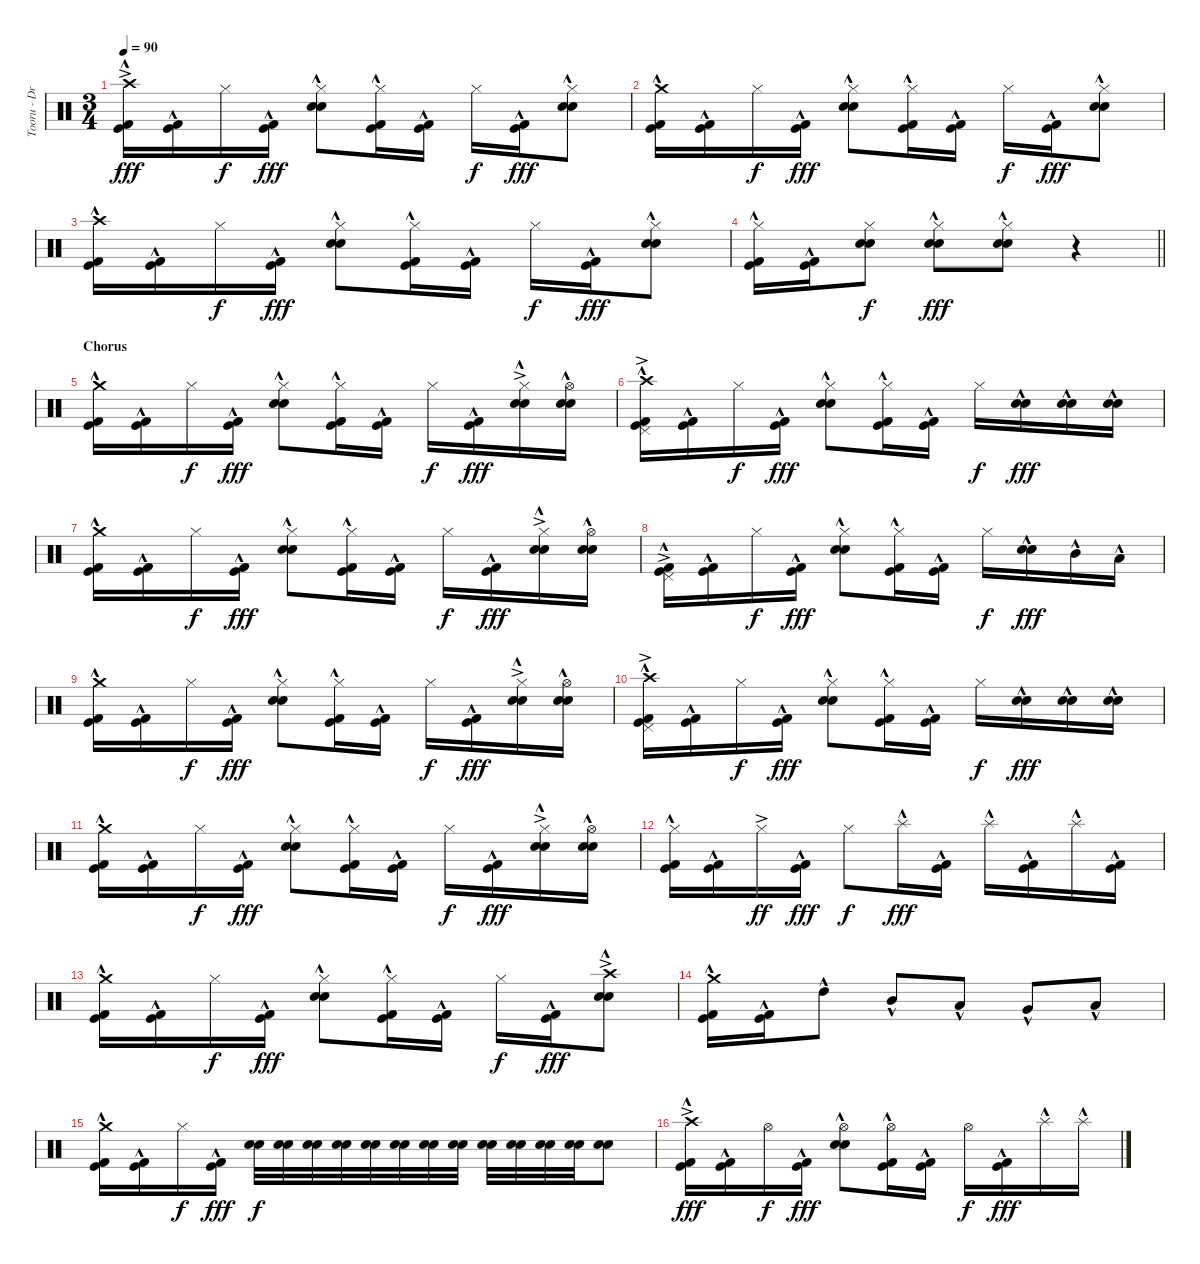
\track ("Tooru - Drums" "Tooru - Dr") {instrument percussion}
\staff {score}
\articulation defaults
\ts (3 4)
\tempo 90
\clef neutral
\ks c
("Crash high (hit)"{ac} "Kick (hit)"{hac} "Kick (hit) 2"{hac}).16{dy fff} ("Kick (hit)"{hac} "Kick (hit) 2"{hac}).16 "Hi-Hat (closed)".16{dy f} ("Kick (hit)"{hac} "Kick (hit) 2"{hac}).16{dy fff} ("Hi-Hat (closed)" "Electric Snare (hit)"{hac} "Snare (hit) 2"{hac}).8 ("Hi-Hat (closed)" "Kick (hit)"{hac} "Kick (hit) 2"{hac}).16 ("Kick (hit)"{hac} "Kick (hit) 2"{hac}).16 "Hi-Hat (closed)".16{dy f} ("Kick (hit)"{hac} "Kick (hit) 2"{hac}).16{dy fff} ("Hi-Hat (closed)" "Electric Snare (hit)"{hac} "Snare (hit) 2"{hac}).8 |
("Crash medium (hit)"{hac} "Kick (hit)"{hac} "Kick (hit) 2"{hac}).16 ("Kick (hit)"{hac} "Kick (hit) 2"{hac}).16 "Hi-Hat (closed)".16{dy f} ("Kick (hit)"{hac} "Kick (hit) 2"{hac}).16{dy fff} ("Hi-Hat (closed)" "Electric Snare (hit)"{hac} "Snare (hit) 2"{hac}).8 ("Hi-Hat (closed)" "Kick (hit)"{hac} "Kick (hit) 2"{hac}).16 ("Kick (hit)"{hac} "Kick (hit) 2"{hac}).16 "Hi-Hat (closed)".16{dy f} ("Kick (hit)"{hac} "Kick (hit) 2"{hac}).16{dy fff} ("Hi-Hat (closed)" "Electric Snare (hit)"{hac} "Snare (hit) 2"{hac}).8 |
("Crash high (hit)"{hac} "Kick (hit)"{hac} "Kick (hit) 2"{hac}).16 ("Kick (hit)"{hac} "Kick (hit) 2"{hac}).16 "Hi-Hat (closed)".16{dy f} ("Kick (hit)"{hac} "Kick (hit) 2"{hac}).16{dy fff} ("Hi-Hat (closed)" "Electric Snare (hit)"{hac} "Snare (hit) 2"{hac}).8 ("Hi-Hat (closed)" "Kick (hit)"{hac} "Kick (hit) 2"{hac}).16 ("Kick (hit)"{hac} "Kick (hit) 2"{hac}).16 "Hi-Hat (closed)".16{dy f} ("Kick (hit)"{hac} "Kick (hit) 2"{hac}).16{dy fff} ("Hi-Hat (closed)" "Electric Snare (hit)"{hac} "Snare (hit) 2"{hac}).8 |
\barLineRight lightlight
("Hi-Hat (closed)" "Kick (hit)"{hac} "Kick (hit) 2"{hac}).16 ("Kick (hit)"{hac} "Kick (hit) 2"{hac}).16 ("Hi-Hat (closed)" "Electric Snare (hit)" "Snare (hit) 2").8{dy f} ("Hi-Hat (closed)" "Electric Snare (hit)"{hac} "Snare (hit) 2"{hac}).8{dy fff} ("Hi-Hat (closed)" "Electric Snare (hit)"{hac} "Snare (hit) 2"{hac}).8 r.4 |
\section ("" "Chorus")
("Crash medium (hit)"{hac} "Kick (hit)"{hac} "Kick (hit) 2"{hac}).16 ("Kick (hit)"{hac} "Kick (hit) 2"{hac}).16 "Hi-Hat (closed)".16{dy f} ("Kick (hit)"{hac} "Kick (hit) 2"{hac}).16{dy fff} ("Hi-Hat (closed)" "Electric Snare (hit)"{hac} "Snare (hit) 2"{hac}).8 ("Hi-Hat (closed)" "Kick (hit)"{hac} "Kick (hit) 2"{hac}).16 ("Kick (hit)"{hac} "Kick (hit) 2"{hac}).16 "Hi-Hat (closed)".16{dy f} ("Kick (hit)"{hac} "Kick (hit) 2"{hac}).16{dy fff} ("Hi-Hat (closed)"{ac} "Electric Snare (hit)"{hac} "Snare (hit) 2"{hac}).16 ("Hi-Hat (open)"{hac} "Electric Snare (hit)"{hac} "Snare (hit) 2"{hac}).16 |
("Crash high (hit)"{hac} "Pedal Hi-Hat (hit)"{ac} "Kick (hit)"{hac} "Kick (hit) 2"{hac}).16 ("Kick (hit)"{hac} "Kick (hit) 2"{hac}).16 "Hi-Hat (closed)".16{dy f} ("Kick (hit)"{hac} "Kick (hit) 2"{hac}).16{dy fff} ("Hi-Hat (closed)" "Electric Snare (hit)"{hac} "Snare (hit) 2"{hac}).8 ("Hi-Hat (closed)" "Kick (hit)"{hac} "Kick (hit) 2"{hac}).16 ("Kick (hit)"{hac} "Kick (hit) 2"{hac}).16 "Hi-Hat (closed)".16{dy f} ("Electric Snare (hit)"{hac} "Snare (hit) 2"{hac}).16{dy fff} ("Electric Snare (hit)"{hac} "Snare (hit) 2"{hac}).16 ("Electric Snare (hit)"{hac} "Snare (hit) 2"{hac}).16 |
("Crash medium (hit)"{hac} "Kick (hit)"{hac} "Kick (hit) 2"{hac}).16 ("Kick (hit)"{hac} "Kick (hit) 2"{hac}).16 "Hi-Hat (closed)".16{dy f} ("Kick (hit)"{hac} "Kick (hit) 2"{hac}).16{dy fff} ("Hi-Hat (closed)" "Electric Snare (hit)"{hac} "Snare (hit) 2"{hac}).8 ("Hi-Hat (closed)" "Kick (hit)"{hac} "Kick (hit) 2"{hac}).16 ("Kick (hit)"{hac} "Kick (hit) 2"{hac}).16 "Hi-Hat (closed)".16{dy f} ("Kick (hit)"{hac} "Kick (hit) 2"{hac}).16{dy fff} ("Hi-Hat (closed)"{ac} "Electric Snare (hit)"{hac} "Snare (hit) 2"{hac}).16 ("Hi-Hat (open)"{hac} "Electric Snare (hit)"{hac} "Snare (hit) 2"{hac}).16 |
("Pedal Hi-Hat (hit)"{ac} "Kick (hit)"{hac} "Kick (hit) 2"{hac}).16 ("Kick (hit)"{hac} "Kick (hit) 2"{hac}).16 "Hi-Hat (closed)".16{dy f} ("Kick (hit)"{hac} "Kick (hit) 2"{hac}).16{dy fff} ("Hi-Hat (closed)" "Electric Snare (hit)"{hac} "Snare (hit) 2"{hac}).8 ("Hi-Hat (closed)" "Kick (hit)"{hac} "Kick (hit) 2"{hac}).16 ("Kick (hit)"{hac} "Kick (hit) 2"{hac}).16 "Hi-Hat (closed)".16{dy f} ("Electric Snare (hit)"{hac} "Snare (hit) 2"{hac}).16{dy fff} "Mid Tom (hit)"{hac}.16 "Low Tom (hit)"{hac}.16 |
("Crash medium (hit)"{hac} "Kick (hit)"{hac} "Kick (hit) 2"{hac}).16 ("Kick (hit)"{hac} "Kick (hit) 2"{hac}).16 "Hi-Hat (closed)".16{dy f} ("Kick (hit)"{hac} "Kick (hit) 2"{hac}).16{dy fff} ("Hi-Hat (closed)" "Electric Snare (hit)"{hac} "Snare (hit) 2"{hac}).8 ("Hi-Hat (closed)" "Kick (hit)"{hac} "Kick (hit) 2"{hac}).16 ("Kick (hit)"{hac} "Kick (hit) 2"{hac}).16 "Hi-Hat (closed)".16{dy f} ("Kick (hit)"{hac} "Kick (hit) 2"{hac}).16{dy fff} ("Hi-Hat (closed)"{ac} "Electric Snare (hit)"{hac} "Snare (hit) 2"{hac}).16 ("Hi-Hat (open)"{hac} "Electric Snare (hit)"{hac} "Snare (hit) 2"{hac}).16 |
("Crash high (hit)"{hac} "Pedal Hi-Hat (hit)"{ac} "Kick (hit)"{hac} "Kick (hit) 2"{hac}).16 ("Kick (hit)"{hac} "Kick (hit) 2"{hac}).16 "Hi-Hat (closed)".16{dy f} ("Kick (hit)"{hac} "Kick (hit) 2"{hac}).16{dy fff} ("Hi-Hat (closed)" "Electric Snare (hit)"{hac} "Snare (hit) 2"{hac}).8 ("Hi-Hat (closed)" "Kick (hit)"{hac} "Kick (hit) 2"{hac}).16 ("Kick (hit)"{hac} "Kick (hit) 2"{hac}).16 "Hi-Hat (closed)".16{dy f} ("Electric Snare (hit)"{hac} "Snare (hit) 2"{hac}).16{dy fff} ("Electric Snare (hit)"{hac} "Snare (hit) 2"{hac}).16 ("Electric Snare (hit)"{hac} "Snare (hit) 2"{hac}).16 |
("Crash medium (hit)"{hac} "Kick (hit)"{hac} "Kick (hit) 2"{hac}).16 ("Kick (hit)"{hac} "Kick (hit) 2"{hac}).16 "Hi-Hat (closed)".16{dy f} ("Kick (hit)"{hac} "Kick (hit) 2"{hac}).16{dy fff} ("Hi-Hat (closed)" "Electric Snare (hit)"{hac} "Snare (hit) 2"{hac}).8 ("Hi-Hat (closed)" "Kick (hit)"{hac} "Kick (hit) 2"{hac}).16 ("Kick (hit)"{hac} "Kick (hit) 2"{hac}).16 "Hi-Hat (closed)".16{dy f} ("Kick (hit)"{hac} "Kick (hit) 2"{hac}).16{dy fff} ("Hi-Hat (closed)"{ac} "Electric Snare (hit)"{hac} "Snare (hit) 2"{hac}).16 ("Hi-Hat (open)"{hac} "Electric Snare (hit)"{hac} "Snare (hit) 2"{hac}).16 |
("Hi-Hat (closed)"{hac} "Kick (hit)"{hac} "Kick (hit) 2"{hac}).16 ("Kick (hit)"{hac} "Kick (hit) 2"{hac}).16 "Hi-Hat (closed)"{ac}.16{dy ff} ("Kick (hit)"{hac} "Kick (hit) 2"{hac}).16{dy fff} "Hi-Hat (closed)".8{dy f} "Splash (hit)"{hac}.16{dy fff} ("Kick (hit)"{hac} "Kick (hit) 2"{hac}).16 "Splash (hit)"{hac}.16 ("Kick (hit)"{hac} "Kick (hit) 2"{hac}).16 "Splash (hit)"{hac}.16 ("Kick (hit)"{hac} "Kick (hit) 2"{hac}).16 |
("Crash medium (hit)"{hac} "Kick (hit)"{hac} "Kick (hit) 2"{hac}).16 ("Kick (hit)"{hac} "Kick (hit) 2"{hac}).16 "Hi-Hat (closed)".16{dy f} ("Kick (hit)"{hac} "Kick (hit) 2"{hac}).16{dy fff} ("Hi-Hat (closed)" "Electric Snare (hit)"{hac} "Snare (hit) 2"{hac}).8 ("Hi-Hat (closed)" "Kick (hit)"{hac} "Kick (hit) 2"{hac}).16 ("Kick (hit)"{hac} "Kick (hit) 2"{hac}).16 "Hi-Hat (closed)".16{dy f} ("Kick (hit)"{hac} "Kick (hit) 2"{hac}).16{dy fff} ("Crash high (hit)"{ac} "Electric Snare (hit)"{hac} "Snare (hit) 2"{hac}).8 |
("Crash medium (hit)"{hac} "Kick (hit)"{hac} "Kick (hit) 2"{hac}).16 ("Kick (hit)"{hac} "Kick (hit) 2"{hac}).16 "High Tom (hit)"{hac}.8 "Mid Tom (hit)"{hac}.8 "Low Tom (hit)"{hac}.8 "Very Low Tom (hit)"{hac}.8 "Low Floor Tom (hit)"{hac}.8 |
("Crash medium (hit)"{hac} "Kick (hit)"{hac} "Kick (hit) 2"{hac}).16 ("Kick (hit)"{hac} "Kick (hit) 2"{hac}).16 "Hi-Hat (closed)".16{dy f} ("Kick (hit)"{hac} "Kick (hit) 2"{hac}).16{dy fff} ("Electric Snare (hit)" "Snare (hit) 2").32{dy f} ("Electric Snare (hit)" "Snare (hit) 2").32 ("Electric Snare (hit)" "Snare (hit) 2").32 ("Electric Snare (hit)" "Snare (hit) 2").32 ("Electric Snare (hit)" "Snare (hit) 2").32 ("Electric Snare (hit)" "Snare (hit) 2").32 ("Electric Snare (hit)" "Snare (hit) 2").32 ("Electric Snare (hit)" "Snare (hit) 2").32 ("Electric Snare (hit)" "Snare (hit) 2").32 ("Electric Snare (hit)" "Snare (hit) 2").32 ("Electric Snare (hit)" "Snare (hit) 2").32 ("Electric Snare (hit)" "Snare (hit) 2").32 ("Electric Snare (hit)" "Snare (hit) 2").8 |
("Crash high (hit)"{ac} "Kick (hit)"{hac} "Kick (hit) 2"{hac}).16{dy fff} ("Kick (hit)"{hac} "Kick (hit) 2"{hac}).16 "Hi-Hat (open)".16{dy f} ("Kick (hit)"{hac} "Kick (hit) 2"{hac}).16{dy fff} ("Hi-Hat (open)" "Electric Snare (hit)"{hac} "Snare (hit) 2"{hac}).8 ("Hi-Hat (open)" "Kick (hit)"{hac} "Kick (hit) 2"{hac}).16 ("Kick (hit)"{hac} "Kick (hit) 2"{hac}).16 "Hi-Hat (open)".16{dy f} ("Kick (hit)"{hac} "Kick (hit) 2"{hac}).16{dy fff} "Splash (hit)"{hac}.16 "Splash (hit)"{hac}.16
